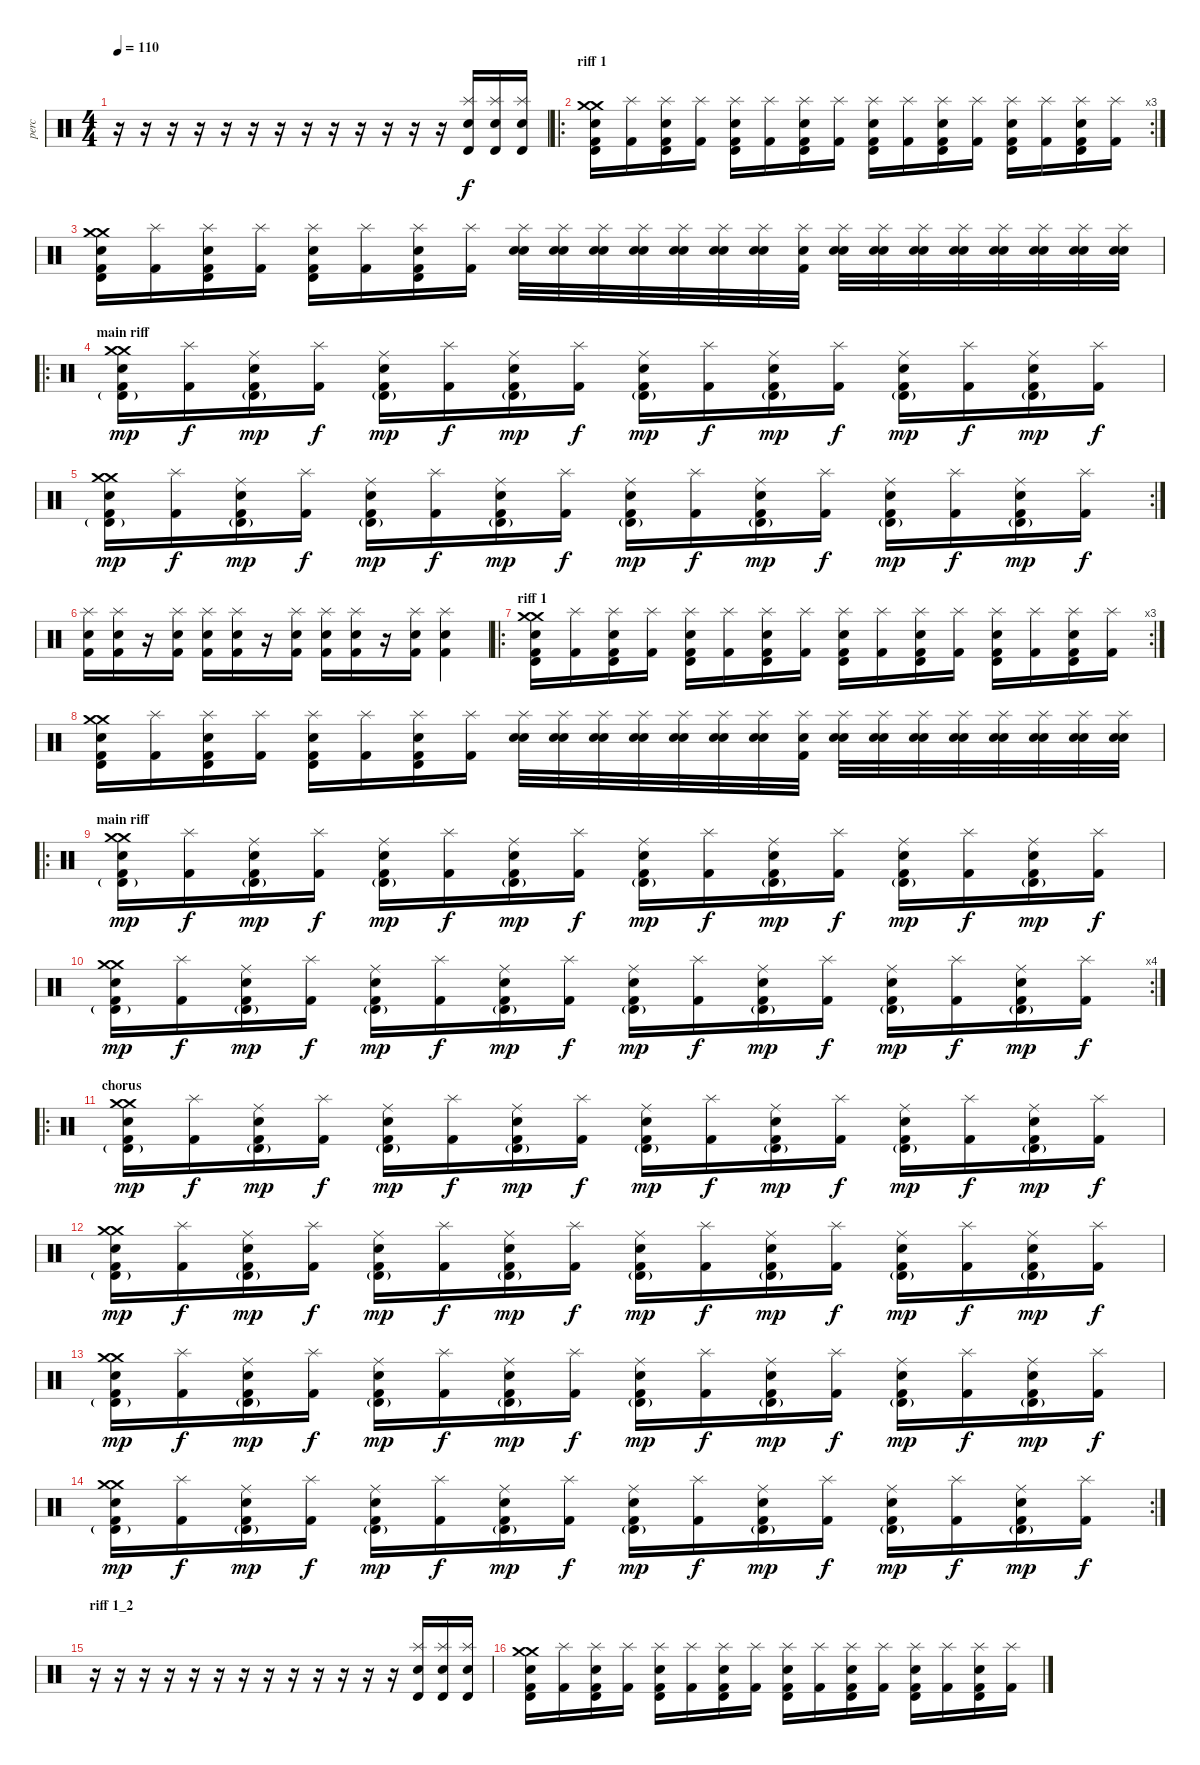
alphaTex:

\track ("perc" "perc") {instrument percussion}
\staff {score}
\articulation defaults
\ts (4 4)
\tempo 110
\clef neutral
\ks c
r.16{dy f} r.16 r.16 r.16 r.16 r.16 r.16 r.16 r.16 r.16 r.16 r.16 r.16 ("Timbale high (hit)" "Splash (hit)" "Snare (hit) 2").16 ("Timbale high (hit)" "Splash (hit)" "Snare (hit) 2").16 ("Timbale high (hit)" "Splash (hit)" "Snare (hit) 2").16 |
\ro
\rc 3
\section ("" "riff 1")
("Crash medium (hit)" "Timbale high (hit)" "Crash medium (hit)" "Kick (hit) 2" "Snare (hit) 2").16 ("Splash (hit)" "Kick (hit) 2").16 ("Timbale high (hit)" "Splash (hit)" "Kick (hit) 2" "Snare (hit) 2").16 ("Splash (hit)" "Kick (hit) 2").16 ("Timbale high (hit)" "Splash (hit)" "Kick (hit) 2" "Snare (hit) 2").16 ("Splash (hit)" "Kick (hit) 2").16 ("Timbale high (hit)" "Splash (hit)" "Kick (hit) 2" "Snare (hit) 2").16 ("Splash (hit)" "Kick (hit) 2").16 ("Timbale high (hit)" "Splash (hit)" "Kick (hit) 2" "Snare (hit) 2").16 ("Splash (hit)" "Kick (hit) 2").16 ("Timbale high (hit)" "Splash (hit)" "Kick (hit) 2" "Snare (hit) 2").16 ("Splash (hit)" "Kick (hit) 2").16 ("Timbale high (hit)" "Splash (hit)" "Kick (hit) 2" "Snare (hit) 2").16 ("Splash (hit)" "Kick (hit) 2").16 ("Timbale high (hit)" "Splash (hit)" "Kick (hit) 2" "Snare (hit) 2").16 ("Splash (hit)" "Kick (hit) 2").16 |
("Crash medium (hit)" "Timbale high (hit)" "Crash medium (hit)" "Kick (hit) 2" "Snare (hit) 2").16 ("Splash (hit)" "Kick (hit) 2").16 ("Timbale high (hit)" "Splash (hit)" "Kick (hit) 2" "Snare (hit) 2").16 ("Splash (hit)" "Kick (hit) 2").16 ("Timbale high (hit)" "Splash (hit)" "Kick (hit) 2" "Snare (hit) 2").16 ("Splash (hit)" "Kick (hit) 2").16 ("Timbale high (hit)" "Splash (hit)" "Kick (hit) 2" "Snare (hit) 2").16 ("Splash (hit)" "Kick (hit) 2").16 ("Splash (hit)" "Snare (hit) 2" "Snare (hit) 2").32 ("Splash (hit)" "Snare (hit) 2" "Snare (hit) 2").32 ("Splash (hit)" "Snare (hit) 2" "Snare (hit) 2").32 ("Splash (hit)" "Snare (hit) 2" "Snare (hit) 2").32 ("Splash (hit)" "Snare (hit) 2" "Snare (hit) 2").32 ("Splash (hit)" "Snare (hit) 2" "Snare (hit) 2").32 ("Splash (hit)" "Snare (hit) 2" "Snare (hit) 2").32 ("Splash (hit)" "Kick (hit) 2" "Snare (hit) 2").32 ("Splash (hit)" "Snare (hit) 2" "Snare (hit) 2").32 ("Splash (hit)" "Snare (hit) 2" "Snare (hit) 2").32 ("Splash (hit)" "Snare (hit) 2" "Snare (hit) 2").32 ("Splash (hit)" "Snare (hit) 2" "Snare (hit) 2").32 ("Splash (hit)" "Snare (hit) 2" "Snare (hit) 2").32 ("Splash (hit)" "Snare (hit) 2" "Snare (hit) 2").32 ("Splash (hit)" "Snare (hit) 2" "Snare (hit) 2").32 ("Splash (hit)" "Snare (hit) 2" "Snare (hit) 2").32 |
\ro
\section ("" "main riff")
("Crash medium (hit)" "Timbale high (hit)"{g} "Crash medium (hit)" "Kick (hit) 2" "Snare (hit) 2").16{dy mp} ("Splash (hit)" "Kick (hit) 2").16{dy f} ("Timbale high (hit)"{g} "Ride (middle)" "Kick (hit) 2" "Snare (hit) 2").16{dy mp} ("Splash (hit)" "Kick (hit) 2").16{dy f} ("Timbale high (hit)"{g} "Ride (middle)" "Kick (hit) 2" "Snare (hit) 2").16{dy mp} ("Splash (hit)" "Kick (hit) 2").16{dy f} ("Timbale high (hit)"{g} "Ride (middle)" "Kick (hit) 2" "Snare (hit) 2").16{dy mp} ("Splash (hit)" "Kick (hit) 2").16{dy f} ("Timbale high (hit)"{g} "Ride (middle)" "Kick (hit) 2" "Snare (hit) 2").16{dy mp} ("Splash (hit)" "Kick (hit) 2").16{dy f} ("Timbale high (hit)"{g} "Ride (middle)" "Kick (hit) 2" "Snare (hit) 2").16{dy mp} ("Splash (hit)" "Kick (hit) 2").16{dy f} ("Timbale high (hit)"{g} "Ride (middle)" "Kick (hit) 2" "Snare (hit) 2").16{dy mp} ("Splash (hit)" "Kick (hit) 2").16{dy f} ("Timbale high (hit)"{g} "Ride (middle)" "Kick (hit) 2" "Snare (hit) 2").16{dy mp} ("Splash (hit)" "Kick (hit) 2").16{dy f} |
\rc 2
("Crash medium (hit)" "Timbale high (hit)"{g} "Crash medium (hit)" "Kick (hit) 2" "Snare (hit) 2").16{dy mp} ("Splash (hit)" "Kick (hit) 2").16{dy f} ("Timbale high (hit)"{g} "Ride (middle)" "Kick (hit) 2" "Snare (hit) 2").16{dy mp} ("Splash (hit)" "Kick (hit) 2").16{dy f} ("Timbale high (hit)"{g} "Ride (middle)" "Kick (hit) 2" "Snare (hit) 2").16{dy mp} ("Splash (hit)" "Kick (hit) 2").16{dy f} ("Timbale high (hit)"{g} "Ride (middle)" "Kick (hit) 2" "Snare (hit) 2").16{dy mp} ("Splash (hit)" "Kick (hit) 2").16{dy f} ("Timbale high (hit)"{g} "Ride (middle)" "Kick (hit) 2" "Snare (hit) 2").16{dy mp} ("Splash (hit)" "Kick (hit) 2").16{dy f} ("Timbale high (hit)"{g} "Ride (middle)" "Kick (hit) 2" "Snare (hit) 2").16{dy mp} ("Splash (hit)" "Kick (hit) 2").16{dy f} ("Timbale high (hit)"{g} "Ride (middle)" "Kick (hit) 2" "Snare (hit) 2").16{dy mp} ("Splash (hit)" "Kick (hit) 2").16{dy f} ("Timbale high (hit)"{g} "Ride (middle)" "Kick (hit) 2" "Snare (hit) 2").16{dy mp} ("Splash (hit)" "Kick (hit) 2").16{dy f} |
("Splash (hit)" "Snare (hit) 2" "Kick (hit) 2").16 ("Splash (hit)" "Snare (hit) 2" "Kick (hit) 2").16 r.16 ("Splash (hit)" "Snare (hit) 2" "Kick (hit) 2").16 ("Splash (hit)" "Snare (hit) 2" "Kick (hit) 2").16 ("Splash (hit)" "Snare (hit) 2" "Kick (hit) 2").16 r.16 ("Splash (hit)" "Snare (hit) 2" "Kick (hit) 2").16 ("Splash (hit)" "Snare (hit) 2" "Kick (hit) 2").16 ("Splash (hit)" "Snare (hit) 2" "Kick (hit) 2").16 r.16 ("Splash (hit)" "Snare (hit) 2" "Kick (hit) 2").16 ("Splash (hit)" "Snare (hit) 2" "Kick (hit) 2").4 |
\ro
\rc 3
\section ("" "riff 1")
("Crash medium (hit)" "Timbale high (hit)" "Crash medium (hit)" "Kick (hit) 2" "Snare (hit) 2").16 ("Splash (hit)" "Kick (hit) 2").16 ("Timbale high (hit)" "Splash (hit)" "Kick (hit) 2" "Snare (hit) 2").16 ("Splash (hit)" "Kick (hit) 2").16 ("Timbale high (hit)" "Splash (hit)" "Kick (hit) 2" "Snare (hit) 2").16 ("Splash (hit)" "Kick (hit) 2").16 ("Timbale high (hit)" "Splash (hit)" "Kick (hit) 2" "Snare (hit) 2").16 ("Splash (hit)" "Kick (hit) 2").16 ("Timbale high (hit)" "Splash (hit)" "Kick (hit) 2" "Snare (hit) 2").16 ("Splash (hit)" "Kick (hit) 2").16 ("Timbale high (hit)" "Splash (hit)" "Kick (hit) 2" "Snare (hit) 2").16 ("Splash (hit)" "Kick (hit) 2").16 ("Timbale high (hit)" "Splash (hit)" "Kick (hit) 2" "Snare (hit) 2").16 ("Splash (hit)" "Kick (hit) 2").16 ("Timbale high (hit)" "Splash (hit)" "Kick (hit) 2" "Snare (hit) 2").16 ("Splash (hit)" "Kick (hit) 2").16 |
("Crash medium (hit)" "Timbale high (hit)" "Crash medium (hit)" "Kick (hit) 2" "Snare (hit) 2").16 ("Splash (hit)" "Kick (hit) 2").16 ("Timbale high (hit)" "Splash (hit)" "Kick (hit) 2" "Snare (hit) 2").16 ("Splash (hit)" "Kick (hit) 2").16 ("Timbale high (hit)" "Splash (hit)" "Kick (hit) 2" "Snare (hit) 2").16 ("Splash (hit)" "Kick (hit) 2").16 ("Timbale high (hit)" "Splash (hit)" "Kick (hit) 2" "Snare (hit) 2").16 ("Splash (hit)" "Kick (hit) 2").16 ("Splash (hit)" "Snare (hit) 2" "Snare (hit) 2").32 ("Splash (hit)" "Snare (hit) 2" "Snare (hit) 2").32 ("Splash (hit)" "Snare (hit) 2" "Snare (hit) 2").32 ("Splash (hit)" "Snare (hit) 2" "Snare (hit) 2").32 ("Splash (hit)" "Snare (hit) 2" "Snare (hit) 2").32 ("Splash (hit)" "Snare (hit) 2" "Snare (hit) 2").32 ("Splash (hit)" "Snare (hit) 2" "Snare (hit) 2").32 ("Splash (hit)" "Kick (hit) 2" "Snare (hit) 2").32 ("Splash (hit)" "Snare (hit) 2" "Snare (hit) 2").32 ("Splash (hit)" "Snare (hit) 2" "Snare (hit) 2").32 ("Splash (hit)" "Snare (hit) 2" "Snare (hit) 2").32 ("Splash (hit)" "Snare (hit) 2" "Snare (hit) 2").32 ("Splash (hit)" "Snare (hit) 2" "Snare (hit) 2").32 ("Splash (hit)" "Snare (hit) 2" "Snare (hit) 2").32 ("Splash (hit)" "Snare (hit) 2" "Snare (hit) 2").32 ("Splash (hit)" "Snare (hit) 2" "Snare (hit) 2").32 |
\ro
\section ("" "main riff")
("Crash medium (hit)" "Timbale high (hit)"{g} "Crash medium (hit)" "Kick (hit) 2" "Snare (hit) 2").16{dy mp} ("Splash (hit)" "Kick (hit) 2").16{dy f} ("Timbale high (hit)"{g} "Ride (middle)" "Kick (hit) 2" "Snare (hit) 2").16{dy mp} ("Splash (hit)" "Kick (hit) 2").16{dy f} ("Timbale high (hit)"{g} "Ride (middle)" "Kick (hit) 2" "Snare (hit) 2").16{dy mp} ("Splash (hit)" "Kick (hit) 2").16{dy f} ("Timbale high (hit)"{g} "Ride (middle)" "Kick (hit) 2" "Snare (hit) 2").16{dy mp} ("Splash (hit)" "Kick (hit) 2").16{dy f} ("Timbale high (hit)"{g} "Ride (middle)" "Kick (hit) 2" "Snare (hit) 2").16{dy mp} ("Splash (hit)" "Kick (hit) 2").16{dy f} ("Timbale high (hit)"{g} "Ride (middle)" "Kick (hit) 2" "Snare (hit) 2").16{dy mp} ("Splash (hit)" "Kick (hit) 2").16{dy f} ("Timbale high (hit)"{g} "Ride (middle)" "Kick (hit) 2" "Snare (hit) 2").16{dy mp} ("Splash (hit)" "Kick (hit) 2").16{dy f} ("Timbale high (hit)"{g} "Ride (middle)" "Kick (hit) 2" "Snare (hit) 2").16{dy mp} ("Splash (hit)" "Kick (hit) 2").16{dy f} |
\rc 4
("Crash medium (hit)" "Timbale high (hit)"{g} "Crash medium (hit)" "Kick (hit) 2" "Snare (hit) 2").16{dy mp} ("Splash (hit)" "Kick (hit) 2").16{dy f} ("Timbale high (hit)"{g} "Ride (middle)" "Kick (hit) 2" "Snare (hit) 2").16{dy mp} ("Splash (hit)" "Kick (hit) 2").16{dy f} ("Timbale high (hit)"{g} "Ride (middle)" "Kick (hit) 2" "Snare (hit) 2").16{dy mp} ("Splash (hit)" "Kick (hit) 2").16{dy f} ("Timbale high (hit)"{g} "Ride (middle)" "Kick (hit) 2" "Snare (hit) 2").16{dy mp} ("Splash (hit)" "Kick (hit) 2").16{dy f} ("Timbale high (hit)"{g} "Ride (middle)" "Kick (hit) 2" "Snare (hit) 2").16{dy mp} ("Splash (hit)" "Kick (hit) 2").16{dy f} ("Timbale high (hit)"{g} "Ride (middle)" "Kick (hit) 2" "Snare (hit) 2").16{dy mp} ("Splash (hit)" "Kick (hit) 2").16{dy f} ("Timbale high (hit)"{g} "Ride (middle)" "Kick (hit) 2" "Snare (hit) 2").16{dy mp} ("Splash (hit)" "Kick (hit) 2").16{dy f} ("Timbale high (hit)"{g} "Ride (middle)" "Kick (hit) 2" "Snare (hit) 2").16{dy mp} ("Splash (hit)" "Kick (hit) 2").16{dy f} |
\ro
\section ("" "chorus")
("Crash medium (hit)" "Timbale high (hit)"{g} "Crash medium (hit)" "Kick (hit) 2" "Snare (hit) 2").16{dy mp} ("Splash (hit)" "Kick (hit) 2").16{dy f} ("Timbale high (hit)"{g} "Ride (middle)" "Kick (hit) 2" "Snare (hit) 2").16{dy mp} ("Splash (hit)" "Kick (hit) 2").16{dy f} ("Timbale high (hit)"{g} "Ride (middle)" "Kick (hit) 2" "Snare (hit) 2").16{dy mp} ("Splash (hit)" "Kick (hit) 2").16{dy f} ("Timbale high (hit)"{g} "Ride (middle)" "Kick (hit) 2" "Snare (hit) 2").16{dy mp} ("Splash (hit)" "Kick (hit) 2").16{dy f} ("Timbale high (hit)"{g} "Ride (middle)" "Kick (hit) 2" "Snare (hit) 2").16{dy mp} ("Splash (hit)" "Kick (hit) 2").16{dy f} ("Timbale high (hit)"{g} "Ride (middle)" "Kick (hit) 2" "Snare (hit) 2").16{dy mp} ("Splash (hit)" "Kick (hit) 2").16{dy f} ("Timbale high (hit)"{g} "Ride (middle)" "Kick (hit) 2" "Snare (hit) 2").16{dy mp} ("Splash (hit)" "Kick (hit) 2").16{dy f} ("Timbale high (hit)"{g} "Ride (middle)" "Kick (hit) 2" "Snare (hit) 2").16{dy mp} ("Splash (hit)" "Kick (hit) 2").16{dy f} |
("Crash medium (hit)" "Timbale high (hit)"{g} "Crash medium (hit)" "Kick (hit) 2" "Snare (hit) 2").16{dy mp} ("Splash (hit)" "Kick (hit) 2").16{dy f} ("Timbale high (hit)"{g} "Ride (middle)" "Kick (hit) 2" "Snare (hit) 2").16{dy mp} ("Splash (hit)" "Kick (hit) 2").16{dy f} ("Timbale high (hit)"{g} "Ride (middle)" "Kick (hit) 2" "Snare (hit) 2").16{dy mp} ("Splash (hit)" "Kick (hit) 2").16{dy f} ("Timbale high (hit)"{g} "Ride (middle)" "Kick (hit) 2" "Snare (hit) 2").16{dy mp} ("Splash (hit)" "Kick (hit) 2").16{dy f} ("Timbale high (hit)"{g} "Ride (middle)" "Kick (hit) 2" "Snare (hit) 2").16{dy mp} ("Splash (hit)" "Kick (hit) 2").16{dy f} ("Timbale high (hit)"{g} "Ride (middle)" "Kick (hit) 2" "Snare (hit) 2").16{dy mp} ("Splash (hit)" "Kick (hit) 2").16{dy f} ("Timbale high (hit)"{g} "Ride (middle)" "Kick (hit) 2" "Snare (hit) 2").16{dy mp} ("Splash (hit)" "Kick (hit) 2").16{dy f} ("Timbale high (hit)"{g} "Ride (middle)" "Kick (hit) 2" "Snare (hit) 2").16{dy mp} ("Splash (hit)" "Kick (hit) 2").16{dy f} |
("Crash medium (hit)" "Timbale high (hit)"{g} "Crash medium (hit)" "Kick (hit) 2" "Snare (hit) 2").16{dy mp} ("Splash (hit)" "Kick (hit) 2").16{dy f} ("Timbale high (hit)"{g} "Ride (middle)" "Kick (hit) 2" "Snare (hit) 2").16{dy mp} ("Splash (hit)" "Kick (hit) 2").16{dy f} ("Timbale high (hit)"{g} "Ride (middle)" "Kick (hit) 2" "Snare (hit) 2").16{dy mp} ("Splash (hit)" "Kick (hit) 2").16{dy f} ("Timbale high (hit)"{g} "Ride (middle)" "Kick (hit) 2" "Snare (hit) 2").16{dy mp} ("Splash (hit)" "Kick (hit) 2").16{dy f} ("Timbale high (hit)"{g} "Ride (middle)" "Kick (hit) 2" "Snare (hit) 2").16{dy mp} ("Splash (hit)" "Kick (hit) 2").16{dy f} ("Timbale high (hit)"{g} "Ride (middle)" "Kick (hit) 2" "Snare (hit) 2").16{dy mp} ("Splash (hit)" "Kick (hit) 2").16{dy f} ("Timbale high (hit)"{g} "Ride (middle)" "Kick (hit) 2" "Snare (hit) 2").16{dy mp} ("Splash (hit)" "Kick (hit) 2").16{dy f} ("Timbale high (hit)"{g} "Ride (middle)" "Kick (hit) 2" "Snare (hit) 2").16{dy mp} ("Splash (hit)" "Kick (hit) 2").16{dy f} |
\rc 2
("Crash medium (hit)" "Timbale high (hit)"{g} "Crash medium (hit)" "Kick (hit) 2" "Snare (hit) 2").16{dy mp} ("Splash (hit)" "Kick (hit) 2").16{dy f} ("Timbale high (hit)"{g} "Ride (middle)" "Kick (hit) 2" "Snare (hit) 2").16{dy mp} ("Splash (hit)" "Kick (hit) 2").16{dy f} ("Timbale high (hit)"{g} "Ride (middle)" "Kick (hit) 2" "Snare (hit) 2").16{dy mp} ("Splash (hit)" "Kick (hit) 2").16{dy f} ("Timbale high (hit)"{g} "Ride (middle)" "Kick (hit) 2" "Snare (hit) 2").16{dy mp} ("Splash (hit)" "Kick (hit) 2").16{dy f} ("Timbale high (hit)"{g} "Ride (middle)" "Kick (hit) 2" "Snare (hit) 2").16{dy mp} ("Splash (hit)" "Kick (hit) 2").16{dy f} ("Timbale high (hit)"{g} "Ride (middle)" "Kick (hit) 2" "Snare (hit) 2").16{dy mp} ("Splash (hit)" "Kick (hit) 2").16{dy f} ("Timbale high (hit)"{g} "Ride (middle)" "Kick (hit) 2" "Snare (hit) 2").16{dy mp} ("Splash (hit)" "Kick (hit) 2").16{dy f} ("Timbale high (hit)"{g} "Ride (middle)" "Kick (hit) 2" "Snare (hit) 2").16{dy mp} ("Splash (hit)" "Kick (hit) 2").16{dy f} |
\section ("" "riff 1_2")
r.16 r.16 r.16 r.16 r.16 r.16 r.16 r.16 r.16 r.16 r.16 r.16 r.16 ("Timbale high (hit)" "Splash (hit)" "Snare (hit) 2").16 ("Timbale high (hit)" "Splash (hit)" "Snare (hit) 2").16 ("Timbale high (hit)" "Splash (hit)" "Snare (hit) 2").16 |
("Crash medium (hit)" "Timbale high (hit)" "Crash medium (hit)" "Kick (hit) 2" "Snare (hit) 2").16 ("Splash (hit)" "Kick (hit) 2").16 ("Timbale high (hit)" "Splash (hit)" "Kick (hit) 2" "Snare (hit) 2").16 ("Splash (hit)" "Kick (hit) 2").16 ("Timbale high (hit)" "Splash (hit)" "Kick (hit) 2" "Snare (hit) 2").16 ("Splash (hit)" "Kick (hit) 2").16 ("Timbale high (hit)" "Splash (hit)" "Kick (hit) 2" "Snare (hit) 2").16 ("Splash (hit)" "Kick (hit) 2").16 ("Timbale high (hit)" "Splash (hit)" "Kick (hit) 2" "Snare (hit) 2").16 ("Splash (hit)" "Kick (hit) 2").16 ("Timbale high (hit)" "Splash (hit)" "Kick (hit) 2" "Snare (hit) 2").16 ("Splash (hit)" "Kick (hit) 2").16 ("Timbale high (hit)" "Splash (hit)" "Kick (hit) 2" "Snare (hit) 2").16 ("Splash (hit)" "Kick (hit) 2").16 ("Timbale high (hit)" "Splash (hit)" "Kick (hit) 2" "Snare (hit) 2").16 ("Splash (hit)" "Kick (hit) 2").16
